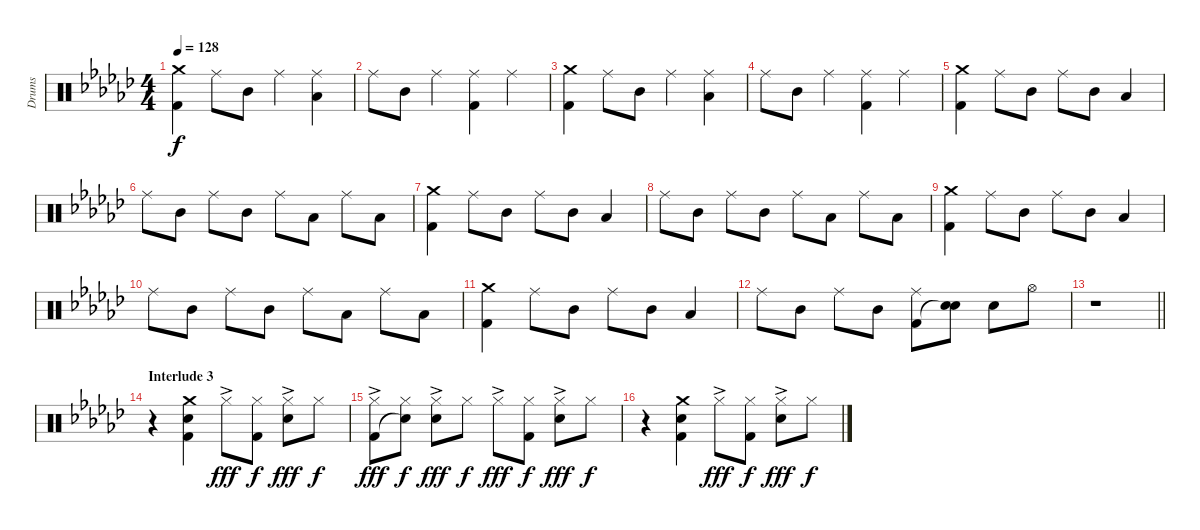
\track ("Drums" "Drums") {instrument percussion}
\staff {score}
\articulation defaults
\ts (4 4)
\tempo 128
\clef neutral
\ks gb
("Crash medium (hit)" "Kick (hit) 2").4{dy f} "Ride (middle)".8 "Mid Tom (hit)".8 "Ride (middle)".4 ("Ride (middle)" "Low Floor Tom (hit)").4 |
"Ride (middle)".8 "Mid Tom (hit)".8 "Ride (middle)".4 ("Ride (middle)" "Kick (hit) 2").4 "Ride (middle)".4 |
("Crash medium (hit)" "Kick (hit) 2").4 "Ride (middle)".8 "Mid Tom (hit)".8 "Ride (middle)".4 ("Ride (middle)" "Low Floor Tom (hit)").4 |
"Ride (middle)".8 "Mid Tom (hit)".8 "Ride (middle)".4 ("Ride (middle)" "Kick (hit) 2").4 "Ride (middle)".4 |
("Crash medium (hit)" "Kick (hit) 2").4 "Ride (middle)".8 "Mid Tom (hit)".8 "Ride (middle)".8 "Mid Tom (hit)".8 "Low Floor Tom (hit)".4 |
"Ride (middle)".8 "Mid Tom (hit)".8 "Ride (middle)".8 "Mid Tom (hit)".8 "Ride (middle)".8 "Low Floor Tom (hit)".8 "Ride (middle)".8 "Low Floor Tom (hit)".8 |
("Crash medium (hit)" "Kick (hit) 2").4 "Ride (middle)".8 "Mid Tom (hit)".8 "Ride (middle)".8 "Mid Tom (hit)".8 "Low Floor Tom (hit)".4 |
"Ride (middle)".8 "Mid Tom (hit)".8 "Ride (middle)".8 "Mid Tom (hit)".8 "Ride (middle)".8 "Low Floor Tom (hit)".8 "Ride (middle)".8 "Low Floor Tom (hit)".8 |
("Crash medium (hit)" "Kick (hit) 2").4 "Ride (middle)".8 "Mid Tom (hit)".8 "Ride (middle)".8 "Mid Tom (hit)".8 "Low Floor Tom (hit)".4 |
"Ride (middle)".8 "Mid Tom (hit)".8 "Ride (middle)".8 "Mid Tom (hit)".8 "Ride (middle)".8 "Low Floor Tom (hit)".8 "Ride (middle)".8 "Low Floor Tom (hit)".8 |
("Crash medium (hit)" "Kick (hit) 2").4 "Ride (middle)".8 "Mid Tom (hit)".8 "Ride (middle)".8 "Mid Tom (hit)".8 "Low Floor Tom (hit)".4 |
"Ride (middle)".8 "Mid Tom (hit)".8 "Ride (middle)".8 "Mid Tom (hit)".8 ("Ride (middle)" "Kick (hit) 2").8 ("Electric Snare (hit)" "Snare (hit)"{t}).8 "Electric Snare (hit)".8 "Hi-Hat (open)".8 |
\barLineRight lightlight
r.1 |
\section ("" "Interlude 3")
r.4 ("Crash medium (hit)" "Electric Snare (hit)" "Kick (hit) 2").4 "Hi-Hat (closed)"{ac}.8{dy fff} ("Hi-Hat (closed)" "Kick (hit) 2").8{dy f} ("Hi-Hat (closed)"{ac} "Electric Snare (hit)").8{dy fff} "Hi-Hat (closed)".8{dy f} |
("Hi-Hat (closed)"{ac} "Kick (hit) 2").8{dy fff} ("Hi-Hat (closed)" "Snare (hit)"{t}).8{dy f} ("Hi-Hat (closed)"{ac} "Electric Snare (hit)").8{dy fff} "Hi-Hat (closed)".8{dy f} "Hi-Hat (closed)"{ac}.8{dy fff} ("Hi-Hat (closed)" "Kick (hit) 2").8{dy f} ("Hi-Hat (closed)"{ac} "Electric Snare (hit)").8{dy fff} "Hi-Hat (closed)".8{dy f} |
r.4 ("Crash medium (hit)" "Electric Snare (hit)" "Kick (hit) 2").4 "Hi-Hat (closed)"{ac}.8{dy fff} ("Hi-Hat (closed)" "Kick (hit) 2").8{dy f} ("Hi-Hat (closed)"{ac} "Electric Snare (hit)").8{dy fff} "Hi-Hat (closed)".8{dy f}
